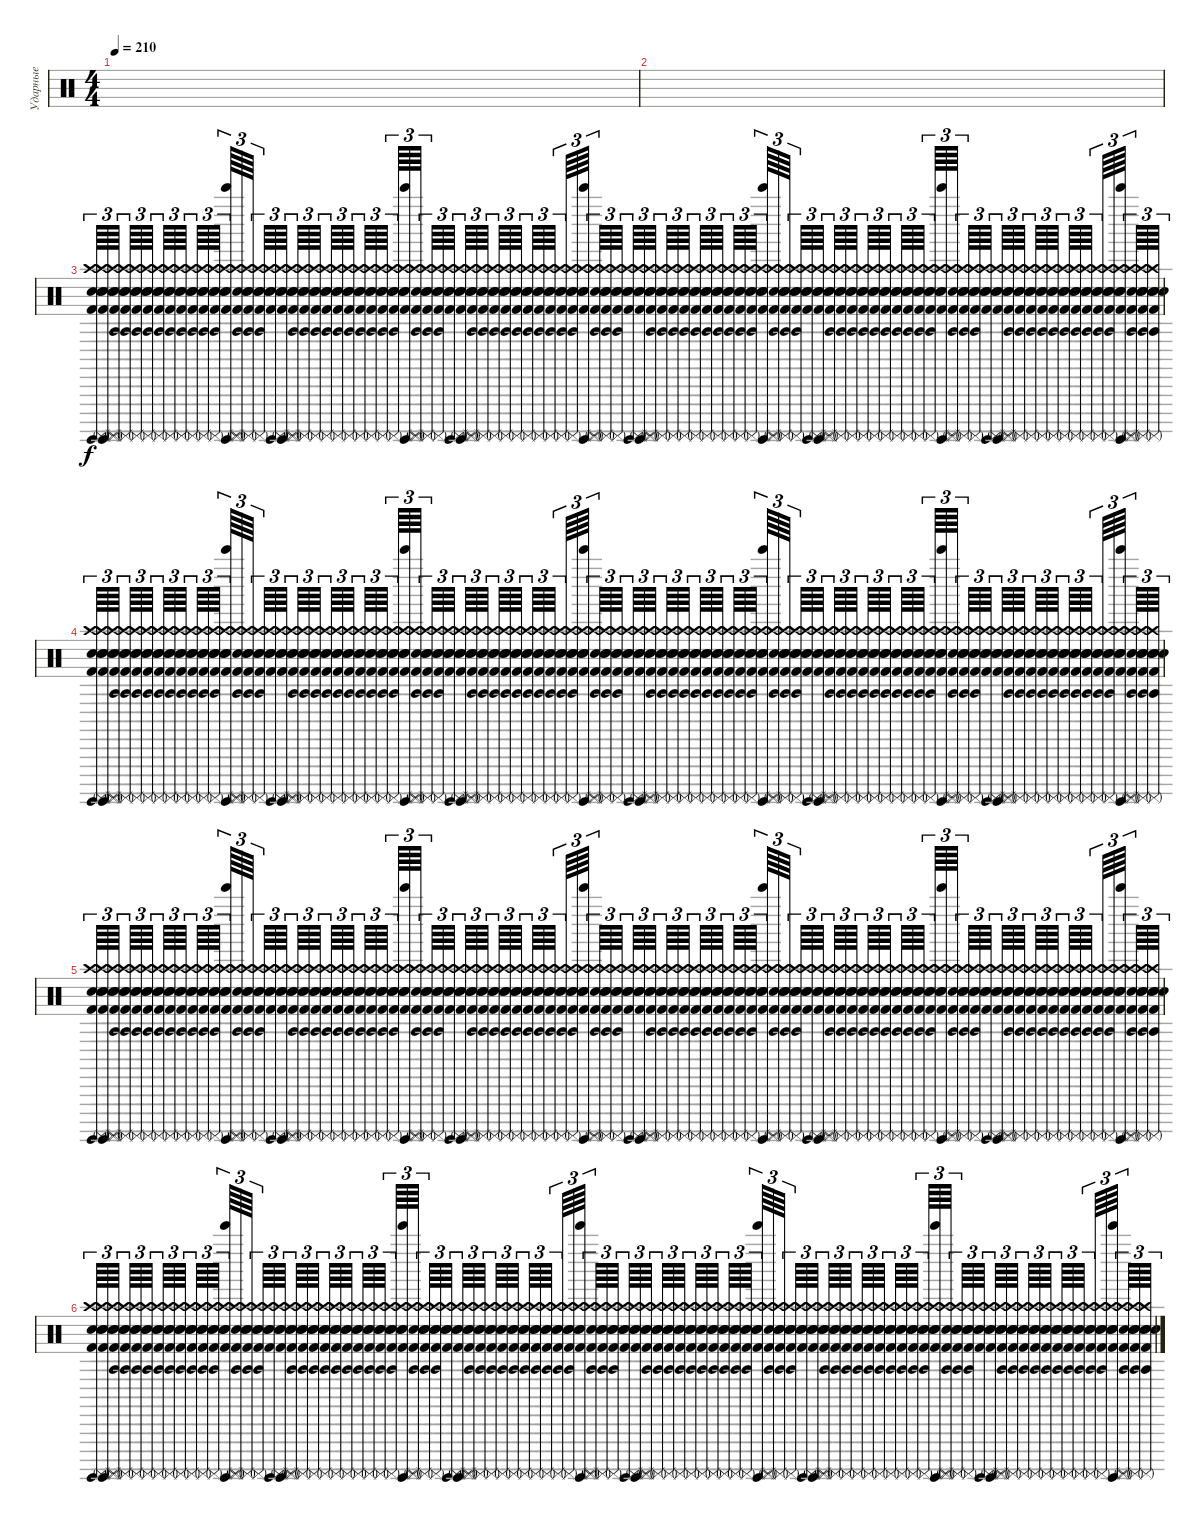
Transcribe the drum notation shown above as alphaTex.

\track ("Ударные" "Ударные") {instrument percussion}
\staff {score}
\articulation defaults
\ts (4 4)
\tempo 210
\clef neutral
\ks c
|
|
("Surdo (mute)" "Surdo (hit)" "Crash high (hit)" "Electric Snare (hit)" "Kick (hit) 2" "Snare (hit) 2").64{tu (3 2)} ("Surdo (mute)" "Surdo (hit)" "Crash high (hit)" "Electric Snare (hit)" "Kick (hit) 2" "Snare (hit) 2").64{tu (3 2)} ("Surdo (mute)" "Agogo tow (hit)" "Crash high (hit)" "Electric Snare (hit)" "Kick (hit) 2" "Snare (hit) 2").64{tu (3 2) beam splitsecondary} ("Surdo (mute)" "Agogo tow (hit)" "Crash high (hit)" "Electric Snare (hit)" "Kick (hit) 2" "Snare (hit) 2").64{tu (3 2)} ("Surdo (mute)" "Agogo tow (hit)" "Crash high (hit)" "Electric Snare (hit)" "Kick (hit) 2" "Snare (hit) 2").64{tu (3 2)} ("Surdo (mute)" "Agogo tow (hit)" "Crash high (hit)" "Electric Snare (hit)" "Kick (hit) 2" "Snare (hit) 2").64{tu (3 2) beam splitsecondary} ("Surdo (mute)" "Agogo tow (hit)" "Crash high (hit)" "Electric Snare (hit)" "Kick (hit) 2" "Snare (hit) 2").64{tu (3 2)} ("Surdo (mute)" "Agogo tow (hit)" "Crash high (hit)" "Electric Snare (hit)" "Kick (hit) 2" "Snare (hit) 2").64{tu (3 2)} ("Surdo (mute)" "Agogo tow (hit)" "Crash high (hit)" "Electric Snare (hit)" "Kick (hit) 2" "Snare (hit) 2").64{tu (3 2) beam splitsecondary} ("Surdo (mute)" "Agogo tow (hit)" "Crash high (hit)" "Electric Snare (hit)" "Kick (hit) 2" "Snare (hit) 2").64{tu (3 2)} ("Surdo (mute)" "Agogo tow (hit)" "Crash high (hit)" "Electric Snare (hit)" "Kick (hit) 2" "Snare (hit) 2").64{tu (3 2)} ("Surdo (mute)" "Agogo tow (hit)" "Crash high (hit)" "Electric Snare (hit)" "Kick (hit) 2" "Snare (hit) 2").64{tu (3 2) beam splitsecondary} ("Surdo (mute)" "Surdo (hit)" "Crash high (hit)" "Electric Snare (hit)" "Kick (hit) 2" "Tinkle Bell (hit)").64{tu (3 2)} ("Surdo (mute)" "Agogo tow (hit)" "Crash high (hit)" "Electric Snare (hit)" "Kick (hit) 2" "Snare (hit) 2").64{tu (3 2)} ("Surdo (mute)" "Agogo tow (hit)" "Crash high (hit)" "Electric Snare (hit)" "Kick (hit) 2" "Snare (hit) 2").64{tu (3 2) beam splitsecondary} ("Surdo (mute)" "Agogo tow (hit)" "Crash high (hit)" "Electric Snare (hit)" "Kick (hit) 2" "Snare (hit) 2").64{tu (3 2)} ("Surdo (mute)" "Surdo (hit)" "Crash high (hit)" "Electric Snare (hit)" "Kick (hit) 2" "Snare (hit) 2").64{tu (3 2)} ("Surdo (mute)" "Surdo (hit)" "Crash high (hit)" "Electric Snare (hit)" "Kick (hit) 2" "Snare (hit) 2").64{tu (3 2) beam splitsecondary} ("Surdo (mute)" "Agogo tow (hit)" "Crash high (hit)" "Electric Snare (hit)" "Kick (hit) 2" "Snare (hit) 2").64{tu (3 2)} ("Surdo (mute)" "Agogo tow (hit)" "Crash high (hit)" "Electric Snare (hit)" "Kick (hit) 2" "Snare (hit) 2").64{tu (3 2)} ("Surdo (mute)" "Agogo tow (hit)" "Crash high (hit)" "Electric Snare (hit)" "Kick (hit) 2" "Snare (hit) 2").64{tu (3 2) beam splitsecondary} ("Surdo (mute)" "Agogo tow (hit)" "Crash high (hit)" "Electric Snare (hit)" "Kick (hit) 2" "Snare (hit) 2").64{tu (3 2)} ("Surdo (mute)" "Agogo tow (hit)" "Crash high (hit)" "Electric Snare (hit)" "Kick (hit) 2" "Snare (hit) 2").64{tu (3 2)} ("Surdo (mute)" "Agogo tow (hit)" "Crash high (hit)" "Electric Snare (hit)" "Kick (hit) 2" "Snare (hit) 2").64{tu (3 2)} ("Surdo (mute)" "Agogo tow (hit)" "Crash high (hit)" "Electric Snare (hit)" "Kick (hit) 2" "Snare (hit) 2").64{tu (3 2)} ("Surdo (mute)" "Agogo tow (hit)" "Crash high (hit)" "Electric Snare (hit)" "Kick (hit) 2" "Snare (hit) 2").64{tu (3 2)} ("Surdo (mute)" "Agogo tow (hit)" "Crash high (hit)" "Electric Snare (hit)" "Kick (hit) 2" "Snare (hit) 2").64{tu (3 2) beam splitsecondary} ("Surdo (mute)" "Agogo tow (hit)" "Crash high (hit)" "Electric Snare (hit)" "Kick (hit) 2" "Snare (hit) 2").64{tu (3 2)} ("Surdo (mute)" "Surdo (hit)" "Crash high (hit)" "Electric Snare (hit)" "Kick (hit) 2" "Tinkle Bell (hit)").64{tu (3 2)} ("Surdo (mute)" "Agogo tow (hit)" "Crash high (hit)" "Electric Snare (hit)" "Kick (hit) 2" "Snare (hit) 2").64{tu (3 2) beam splitsecondary} ("Surdo (mute)" "Agogo tow (hit)" "Crash high (hit)" "Electric Snare (hit)" "Kick (hit) 2" "Snare (hit) 2").64{tu (3 2)} ("Surdo (mute)" "Agogo tow (hit)" "Crash high (hit)" "Electric Snare (hit)" "Kick (hit) 2" "Snare (hit) 2").64{tu (3 2)} ("Surdo (mute)" "Surdo (hit)" "Crash high (hit)" "Electric Snare (hit)" "Kick (hit) 2" "Snare (hit) 2").64{tu (3 2) beam splitsecondary} ("Surdo (mute)" "Surdo (hit)" "Crash high (hit)" "Electric Snare (hit)" "Kick (hit) 2" "Snare (hit) 2").64{tu (3 2)} ("Surdo (mute)" "Agogo tow (hit)" "Crash high (hit)" "Electric Snare (hit)" "Kick (hit) 2" "Snare (hit) 2").64{tu (3 2)} ("Surdo (mute)" "Agogo tow (hit)" "Crash high (hit)" "Electric Snare (hit)" "Kick (hit) 2" "Snare (hit) 2").64{tu (3 2) beam splitsecondary} ("Surdo (mute)" "Agogo tow (hit)" "Crash high (hit)" "Electric Snare (hit)" "Kick (hit) 2" "Snare (hit) 2").64{tu (3 2)} ("Surdo (mute)" "Agogo tow (hit)" "Crash high (hit)" "Electric Snare (hit)" "Kick (hit) 2" "Snare (hit) 2").64{tu (3 2)} ("Surdo (mute)" "Agogo tow (hit)" "Crash high (hit)" "Electric Snare (hit)" "Kick (hit) 2" "Snare (hit) 2").64{tu (3 2) beam splitsecondary} ("Surdo (mute)" "Agogo tow (hit)" "Crash high (hit)" "Electric Snare (hit)" "Kick (hit) 2" "Snare (hit) 2").64{tu (3 2)} ("Surdo (mute)" "Agogo tow (hit)" "Crash high (hit)" "Electric Snare (hit)" "Kick (hit) 2" "Snare (hit) 2").64{tu (3 2)} ("Surdo (mute)" "Agogo tow (hit)" "Crash high (hit)" "Electric Snare (hit)" "Kick (hit) 2" "Snare (hit) 2").64{tu (3 2) beam splitsecondary} ("Surdo (mute)" "Agogo tow (hit)" "Crash high (hit)" "Electric Snare (hit)" "Kick (hit) 2" "Snare (hit) 2").64{tu (3 2)} ("Surdo (mute)" "Agogo tow (hit)" "Crash high (hit)" "Electric Snare (hit)" "Kick (hit) 2" "Snare (hit) 2").64{tu (3 2)} ("Surdo (mute)" "Surdo (hit)" "Crash high (hit)" "Electric Snare (hit)" "Kick (hit) 2" "Tinkle Bell (hit)").64{tu (3 2) beam splitsecondary} ("Surdo (mute)" "Agogo tow (hit)" "Crash high (hit)" "Electric Snare (hit)" "Kick (hit) 2" "Snare (hit) 2").64{tu (3 2)} ("Surdo (mute)" "Agogo tow (hit)" "Crash high (hit)" "Electric Snare (hit)" "Kick (hit) 2" "Snare (hit) 2").64{tu (3 2)} ("Surdo (mute)" "Agogo tow (hit)" "Crash high (hit)" "Electric Snare (hit)" "Kick (hit) 2" "Snare (hit) 2").64{tu (3 2)} ("Surdo (mute)" "Surdo (hit)" "Crash high (hit)" "Electric Snare (hit)" "Kick (hit) 2" "Snare (hit) 2").64{tu (3 2)} ("Surdo (mute)" "Surdo (hit)" "Crash high (hit)" "Electric Snare (hit)" "Kick (hit) 2" "Snare (hit) 2").64{tu (3 2)} ("Surdo (mute)" "Agogo tow (hit)" "Crash high (hit)" "Electric Snare (hit)" "Kick (hit) 2" "Snare (hit) 2").64{tu (3 2) beam splitsecondary} ("Surdo (mute)" "Agogo tow (hit)" "Crash high (hit)" "Electric Snare (hit)" "Kick (hit) 2" "Snare (hit) 2").64{tu (3 2)} ("Surdo (mute)" "Agogo tow (hit)" "Crash high (hit)" "Electric Snare (hit)" "Kick (hit) 2" "Snare (hit) 2").64{tu (3 2)} ("Surdo (mute)" "Agogo tow (hit)" "Crash high (hit)" "Electric Snare (hit)" "Kick (hit) 2" "Snare (hit) 2").64{tu (3 2) beam splitsecondary} ("Surdo (mute)" "Agogo tow (hit)" "Crash high (hit)" "Electric Snare (hit)" "Kick (hit) 2" "Snare (hit) 2").64{tu (3 2)} ("Surdo (mute)" "Agogo tow (hit)" "Crash high (hit)" "Electric Snare (hit)" "Kick (hit) 2" "Snare (hit) 2").64{tu (3 2)} ("Surdo (mute)" "Agogo tow (hit)" "Crash high (hit)" "Electric Snare (hit)" "Kick (hit) 2" "Snare (hit) 2").64{tu (3 2) beam splitsecondary} ("Surdo (mute)" "Agogo tow (hit)" "Crash high (hit)" "Electric Snare (hit)" "Kick (hit) 2" "Snare (hit) 2").64{tu (3 2)} ("Surdo (mute)" "Agogo tow (hit)" "Crash high (hit)" "Electric Snare (hit)" "Kick (hit) 2" "Snare (hit) 2").64{tu (3 2)} ("Surdo (mute)" "Agogo tow (hit)" "Crash high (hit)" "Electric Snare (hit)" "Kick (hit) 2" "Snare (hit) 2").64{tu (3 2) beam splitsecondary} ("Surdo (mute)" "Surdo (hit)" "Crash high (hit)" "Electric Snare (hit)" "Kick (hit) 2" "Tinkle Bell (hit)").64{tu (3 2)} ("Surdo (mute)" "Agogo tow (hit)" "Crash high (hit)" "Electric Snare (hit)" "Kick (hit) 2" "Snare (hit) 2").64{tu (3 2)} ("Surdo (mute)" "Agogo tow (hit)" "Crash high (hit)" "Electric Snare (hit)" "Kick (hit) 2" "Snare (hit) 2").64{tu (3 2) beam splitsecondary} ("Surdo (mute)" "Agogo tow (hit)" "Crash high (hit)" "Electric Snare (hit)" "Kick (hit) 2" "Snare (hit) 2").64{tu (3 2)} ("Surdo (mute)" "Surdo (hit)" "Crash high (hit)" "Electric Snare (hit)" "Kick (hit) 2" "Snare (hit) 2").64{tu (3 2)} ("Surdo (mute)" "Surdo (hit)" "Crash high (hit)" "Electric Snare (hit)" "Kick (hit) 2" "Snare (hit) 2").64{tu (3 2) beam splitsecondary} ("Surdo (mute)" "Agogo tow (hit)" "Crash high (hit)" "Electric Snare (hit)" "Kick (hit) 2" "Snare (hit) 2").64{tu (3 2)} ("Surdo (mute)" "Agogo tow (hit)" "Crash high (hit)" "Electric Snare (hit)" "Kick (hit) 2" "Snare (hit) 2").64{tu (3 2)} ("Surdo (mute)" "Agogo tow (hit)" "Crash high (hit)" "Electric Snare (hit)" "Kick (hit) 2" "Snare (hit) 2").64{tu (3 2) beam splitsecondary} ("Surdo (mute)" "Agogo tow (hit)" "Crash high (hit)" "Electric Snare (hit)" "Kick (hit) 2" "Snare (hit) 2").64{tu (3 2)} ("Surdo (mute)" "Agogo tow (hit)" "Crash high (hit)" "Electric Snare (hit)" "Kick (hit) 2" "Snare (hit) 2").64{tu (3 2)} ("Surdo (mute)" "Agogo tow (hit)" "Crash high (hit)" "Electric Snare (hit)" "Kick (hit) 2" "Snare (hit) 2").64{tu (3 2)} ("Surdo (mute)" "Agogo tow (hit)" "Crash high (hit)" "Electric Snare (hit)" "Kick (hit) 2" "Snare (hit) 2").64{tu (3 2)} ("Surdo (mute)" "Agogo tow (hit)" "Crash high (hit)" "Electric Snare (hit)" "Kick (hit) 2" "Snare (hit) 2").64{tu (3 2)} ("Surdo (mute)" "Agogo tow (hit)" "Crash high (hit)" "Electric Snare (hit)" "Kick (hit) 2" "Snare (hit) 2").64{tu (3 2) beam splitsecondary} ("Surdo (mute)" "Agogo tow (hit)" "Crash high (hit)" "Electric Snare (hit)" "Kick (hit) 2" "Snare (hit) 2").64{tu (3 2)} ("Surdo (mute)" "Surdo (hit)" "Crash high (hit)" "Electric Snare (hit)" "Kick (hit) 2" "Tinkle Bell (hit)").64{tu (3 2)} ("Surdo (mute)" "Agogo tow (hit)" "Crash high (hit)" "Electric Snare (hit)" "Kick (hit) 2" "Snare (hit) 2").64{tu (3 2) beam splitsecondary} ("Surdo (mute)" "Agogo tow (hit)" "Crash high (hit)" "Electric Snare (hit)" "Kick (hit) 2" "Snare (hit) 2").64{tu (3 2)} ("Surdo (mute)" "Agogo tow (hit)" "Crash high (hit)" "Electric Snare (hit)" "Kick (hit) 2" "Snare (hit) 2").64{tu (3 2)} ("Surdo (mute)" "Surdo (hit)" "Crash high (hit)" "Electric Snare (hit)" "Kick (hit) 2" "Snare (hit) 2").64{tu (3 2) beam splitsecondary} ("Surdo (mute)" "Surdo (hit)" "Crash high (hit)" "Electric Snare (hit)" "Kick (hit) 2" "Snare (hit) 2").64{tu (3 2)} ("Surdo (mute)" "Agogo tow (hit)" "Crash high (hit)" "Electric Snare (hit)" "Kick (hit) 2" "Snare (hit) 2").64{tu (3 2)} ("Surdo (mute)" "Agogo tow (hit)" "Crash high (hit)" "Electric Snare (hit)" "Kick (hit) 2" "Snare (hit) 2").64{tu (3 2) beam splitsecondary} ("Surdo (mute)" "Agogo tow (hit)" "Crash high (hit)" "Electric Snare (hit)" "Kick (hit) 2" "Snare (hit) 2").64{tu (3 2)} ("Surdo (mute)" "Agogo tow (hit)" "Crash high (hit)" "Electric Snare (hit)" "Kick (hit) 2" "Snare (hit) 2").64{tu (3 2)} ("Surdo (mute)" "Agogo tow (hit)" "Crash high (hit)" "Electric Snare (hit)" "Kick (hit) 2" "Snare (hit) 2").64{tu (3 2) beam splitsecondary} ("Surdo (mute)" "Agogo tow (hit)" "Crash high (hit)" "Electric Snare (hit)" "Kick (hit) 2" "Snare (hit) 2").64{tu (3 2)} ("Surdo (mute)" "Agogo tow (hit)" "Crash high (hit)" "Electric Snare (hit)" "Kick (hit) 2" "Snare (hit) 2").64{tu (3 2)} ("Surdo (mute)" "Agogo tow (hit)" "Crash high (hit)" "Electric Snare (hit)" "Kick (hit) 2" "Snare (hit) 2").64{tu (3 2) beam splitsecondary} ("Surdo (mute)" "Agogo tow (hit)" "Crash high (hit)" "Electric Snare (hit)" "Kick (hit) 2" "Snare (hit) 2").64{tu (3 2)} ("Surdo (mute)" "Agogo tow (hit)" "Crash high (hit)" "Electric Snare (hit)" "Kick (hit) 2" "Snare (hit) 2").64{tu (3 2)} ("Surdo (mute)" "Surdo (hit)" "Crash high (hit)" "Electric Snare (hit)" "Kick (hit) 2" "Tinkle Bell (hit)").64{tu (3 2) beam splitsecondary} ("Surdo (mute)" "Agogo tow (hit)" "Crash high (hit)" "Electric Snare (hit)" "Kick (hit) 2" "Snare (hit) 2").64{tu (3 2)} ("Surdo (mute)" "Agogo tow (hit)" "Crash high (hit)" "Electric Snare (hit)" "Kick (hit) 2" "Snare (hit) 2").64{tu (3 2)} ("Surdo (mute)" "Agogo tow (hit)" "Crash high (hit)" "Electric Snare (hit)" "Kick (hit) 2" "Snare (hit) 2").64{tu (3 2)} |
("Surdo (mute)" "Surdo (hit)" "Crash high (hit)" "Electric Snare (hit)" "Kick (hit) 2" "Snare (hit) 2").64{tu (3 2)} ("Surdo (mute)" "Surdo (hit)" "Crash high (hit)" "Electric Snare (hit)" "Kick (hit) 2" "Snare (hit) 2").64{tu (3 2)} ("Surdo (mute)" "Agogo tow (hit)" "Crash high (hit)" "Electric Snare (hit)" "Kick (hit) 2" "Snare (hit) 2").64{tu (3 2) beam splitsecondary} ("Surdo (mute)" "Agogo tow (hit)" "Crash high (hit)" "Electric Snare (hit)" "Kick (hit) 2" "Snare (hit) 2").64{tu (3 2)} ("Surdo (mute)" "Agogo tow (hit)" "Crash high (hit)" "Electric Snare (hit)" "Kick (hit) 2" "Snare (hit) 2").64{tu (3 2)} ("Surdo (mute)" "Agogo tow (hit)" "Crash high (hit)" "Electric Snare (hit)" "Kick (hit) 2" "Snare (hit) 2").64{tu (3 2) beam splitsecondary} ("Surdo (mute)" "Agogo tow (hit)" "Crash high (hit)" "Electric Snare (hit)" "Kick (hit) 2" "Snare (hit) 2").64{tu (3 2)} ("Surdo (mute)" "Agogo tow (hit)" "Crash high (hit)" "Electric Snare (hit)" "Kick (hit) 2" "Snare (hit) 2").64{tu (3 2)} ("Surdo (mute)" "Agogo tow (hit)" "Crash high (hit)" "Electric Snare (hit)" "Kick (hit) 2" "Snare (hit) 2").64{tu (3 2) beam splitsecondary} ("Surdo (mute)" "Agogo tow (hit)" "Crash high (hit)" "Electric Snare (hit)" "Kick (hit) 2" "Snare (hit) 2").64{tu (3 2)} ("Surdo (mute)" "Agogo tow (hit)" "Crash high (hit)" "Electric Snare (hit)" "Kick (hit) 2" "Snare (hit) 2").64{tu (3 2)} ("Surdo (mute)" "Agogo tow (hit)" "Crash high (hit)" "Electric Snare (hit)" "Kick (hit) 2" "Snare (hit) 2").64{tu (3 2) beam splitsecondary} ("Surdo (mute)" "Surdo (hit)" "Crash high (hit)" "Electric Snare (hit)" "Kick (hit) 2" "Tinkle Bell (hit)").64{tu (3 2)} ("Surdo (mute)" "Agogo tow (hit)" "Crash high (hit)" "Electric Snare (hit)" "Kick (hit) 2" "Snare (hit) 2").64{tu (3 2)} ("Surdo (mute)" "Agogo tow (hit)" "Crash high (hit)" "Electric Snare (hit)" "Kick (hit) 2" "Snare (hit) 2").64{tu (3 2) beam splitsecondary} ("Surdo (mute)" "Agogo tow (hit)" "Crash high (hit)" "Electric Snare (hit)" "Kick (hit) 2" "Snare (hit) 2").64{tu (3 2)} ("Surdo (mute)" "Surdo (hit)" "Crash high (hit)" "Electric Snare (hit)" "Kick (hit) 2" "Snare (hit) 2").64{tu (3 2)} ("Surdo (mute)" "Surdo (hit)" "Crash high (hit)" "Electric Snare (hit)" "Kick (hit) 2" "Snare (hit) 2").64{tu (3 2) beam splitsecondary} ("Surdo (mute)" "Agogo tow (hit)" "Crash high (hit)" "Electric Snare (hit)" "Kick (hit) 2" "Snare (hit) 2").64{tu (3 2)} ("Surdo (mute)" "Agogo tow (hit)" "Crash high (hit)" "Electric Snare (hit)" "Kick (hit) 2" "Snare (hit) 2").64{tu (3 2)} ("Surdo (mute)" "Agogo tow (hit)" "Crash high (hit)" "Electric Snare (hit)" "Kick (hit) 2" "Snare (hit) 2").64{tu (3 2) beam splitsecondary} ("Surdo (mute)" "Agogo tow (hit)" "Crash high (hit)" "Electric Snare (hit)" "Kick (hit) 2" "Snare (hit) 2").64{tu (3 2)} ("Surdo (mute)" "Agogo tow (hit)" "Crash high (hit)" "Electric Snare (hit)" "Kick (hit) 2" "Snare (hit) 2").64{tu (3 2)} ("Surdo (mute)" "Agogo tow (hit)" "Crash high (hit)" "Electric Snare (hit)" "Kick (hit) 2" "Snare (hit) 2").64{tu (3 2)} ("Surdo (mute)" "Agogo tow (hit)" "Crash high (hit)" "Electric Snare (hit)" "Kick (hit) 2" "Snare (hit) 2").64{tu (3 2)} ("Surdo (mute)" "Agogo tow (hit)" "Crash high (hit)" "Electric Snare (hit)" "Kick (hit) 2" "Snare (hit) 2").64{tu (3 2)} ("Surdo (mute)" "Agogo tow (hit)" "Crash high (hit)" "Electric Snare (hit)" "Kick (hit) 2" "Snare (hit) 2").64{tu (3 2) beam splitsecondary} ("Surdo (mute)" "Agogo tow (hit)" "Crash high (hit)" "Electric Snare (hit)" "Kick (hit) 2" "Snare (hit) 2").64{tu (3 2)} ("Surdo (mute)" "Surdo (hit)" "Crash high (hit)" "Electric Snare (hit)" "Kick (hit) 2" "Tinkle Bell (hit)").64{tu (3 2)} ("Surdo (mute)" "Agogo tow (hit)" "Crash high (hit)" "Electric Snare (hit)" "Kick (hit) 2" "Snare (hit) 2").64{tu (3 2) beam splitsecondary} ("Surdo (mute)" "Agogo tow (hit)" "Crash high (hit)" "Electric Snare (hit)" "Kick (hit) 2" "Snare (hit) 2").64{tu (3 2)} ("Surdo (mute)" "Agogo tow (hit)" "Crash high (hit)" "Electric Snare (hit)" "Kick (hit) 2" "Snare (hit) 2").64{tu (3 2)} ("Surdo (mute)" "Surdo (hit)" "Crash high (hit)" "Electric Snare (hit)" "Kick (hit) 2" "Snare (hit) 2").64{tu (3 2) beam splitsecondary} ("Surdo (mute)" "Surdo (hit)" "Crash high (hit)" "Electric Snare (hit)" "Kick (hit) 2" "Snare (hit) 2").64{tu (3 2)} ("Surdo (mute)" "Agogo tow (hit)" "Crash high (hit)" "Electric Snare (hit)" "Kick (hit) 2" "Snare (hit) 2").64{tu (3 2)} ("Surdo (mute)" "Agogo tow (hit)" "Crash high (hit)" "Electric Snare (hit)" "Kick (hit) 2" "Snare (hit) 2").64{tu (3 2) beam splitsecondary} ("Surdo (mute)" "Agogo tow (hit)" "Crash high (hit)" "Electric Snare (hit)" "Kick (hit) 2" "Snare (hit) 2").64{tu (3 2)} ("Surdo (mute)" "Agogo tow (hit)" "Crash high (hit)" "Electric Snare (hit)" "Kick (hit) 2" "Snare (hit) 2").64{tu (3 2)} ("Surdo (mute)" "Agogo tow (hit)" "Crash high (hit)" "Electric Snare (hit)" "Kick (hit) 2" "Snare (hit) 2").64{tu (3 2) beam splitsecondary} ("Surdo (mute)" "Agogo tow (hit)" "Crash high (hit)" "Electric Snare (hit)" "Kick (hit) 2" "Snare (hit) 2").64{tu (3 2)} ("Surdo (mute)" "Agogo tow (hit)" "Crash high (hit)" "Electric Snare (hit)" "Kick (hit) 2" "Snare (hit) 2").64{tu (3 2)} ("Surdo (mute)" "Agogo tow (hit)" "Crash high (hit)" "Electric Snare (hit)" "Kick (hit) 2" "Snare (hit) 2").64{tu (3 2) beam splitsecondary} ("Surdo (mute)" "Agogo tow (hit)" "Crash high (hit)" "Electric Snare (hit)" "Kick (hit) 2" "Snare (hit) 2").64{tu (3 2)} ("Surdo (mute)" "Agogo tow (hit)" "Crash high (hit)" "Electric Snare (hit)" "Kick (hit) 2" "Snare (hit) 2").64{tu (3 2)} ("Surdo (mute)" "Surdo (hit)" "Crash high (hit)" "Electric Snare (hit)" "Kick (hit) 2" "Tinkle Bell (hit)").64{tu (3 2) beam splitsecondary} ("Surdo (mute)" "Agogo tow (hit)" "Crash high (hit)" "Electric Snare (hit)" "Kick (hit) 2" "Snare (hit) 2").64{tu (3 2)} ("Surdo (mute)" "Agogo tow (hit)" "Crash high (hit)" "Electric Snare (hit)" "Kick (hit) 2" "Snare (hit) 2").64{tu (3 2)} ("Surdo (mute)" "Agogo tow (hit)" "Crash high (hit)" "Electric Snare (hit)" "Kick (hit) 2" "Snare (hit) 2").64{tu (3 2)} ("Surdo (mute)" "Surdo (hit)" "Crash high (hit)" "Electric Snare (hit)" "Kick (hit) 2" "Snare (hit) 2").64{tu (3 2)} ("Surdo (mute)" "Surdo (hit)" "Crash high (hit)" "Electric Snare (hit)" "Kick (hit) 2" "Snare (hit) 2").64{tu (3 2)} ("Surdo (mute)" "Agogo tow (hit)" "Crash high (hit)" "Electric Snare (hit)" "Kick (hit) 2" "Snare (hit) 2").64{tu (3 2) beam splitsecondary} ("Surdo (mute)" "Agogo tow (hit)" "Crash high (hit)" "Electric Snare (hit)" "Kick (hit) 2" "Snare (hit) 2").64{tu (3 2)} ("Surdo (mute)" "Agogo tow (hit)" "Crash high (hit)" "Electric Snare (hit)" "Kick (hit) 2" "Snare (hit) 2").64{tu (3 2)} ("Surdo (mute)" "Agogo tow (hit)" "Crash high (hit)" "Electric Snare (hit)" "Kick (hit) 2" "Snare (hit) 2").64{tu (3 2) beam splitsecondary} ("Surdo (mute)" "Agogo tow (hit)" "Crash high (hit)" "Electric Snare (hit)" "Kick (hit) 2" "Snare (hit) 2").64{tu (3 2)} ("Surdo (mute)" "Agogo tow (hit)" "Crash high (hit)" "Electric Snare (hit)" "Kick (hit) 2" "Snare (hit) 2").64{tu (3 2)} ("Surdo (mute)" "Agogo tow (hit)" "Crash high (hit)" "Electric Snare (hit)" "Kick (hit) 2" "Snare (hit) 2").64{tu (3 2) beam splitsecondary} ("Surdo (mute)" "Agogo tow (hit)" "Crash high (hit)" "Electric Snare (hit)" "Kick (hit) 2" "Snare (hit) 2").64{tu (3 2)} ("Surdo (mute)" "Agogo tow (hit)" "Crash high (hit)" "Electric Snare (hit)" "Kick (hit) 2" "Snare (hit) 2").64{tu (3 2)} ("Surdo (mute)" "Agogo tow (hit)" "Crash high (hit)" "Electric Snare (hit)" "Kick (hit) 2" "Snare (hit) 2").64{tu (3 2) beam splitsecondary} ("Surdo (mute)" "Surdo (hit)" "Crash high (hit)" "Electric Snare (hit)" "Kick (hit) 2" "Tinkle Bell (hit)").64{tu (3 2)} ("Surdo (mute)" "Agogo tow (hit)" "Crash high (hit)" "Electric Snare (hit)" "Kick (hit) 2" "Snare (hit) 2").64{tu (3 2)} ("Surdo (mute)" "Agogo tow (hit)" "Crash high (hit)" "Electric Snare (hit)" "Kick (hit) 2" "Snare (hit) 2").64{tu (3 2) beam splitsecondary} ("Surdo (mute)" "Agogo tow (hit)" "Crash high (hit)" "Electric Snare (hit)" "Kick (hit) 2" "Snare (hit) 2").64{tu (3 2)} ("Surdo (mute)" "Surdo (hit)" "Crash high (hit)" "Electric Snare (hit)" "Kick (hit) 2" "Snare (hit) 2").64{tu (3 2)} ("Surdo (mute)" "Surdo (hit)" "Crash high (hit)" "Electric Snare (hit)" "Kick (hit) 2" "Snare (hit) 2").64{tu (3 2) beam splitsecondary} ("Surdo (mute)" "Agogo tow (hit)" "Crash high (hit)" "Electric Snare (hit)" "Kick (hit) 2" "Snare (hit) 2").64{tu (3 2)} ("Surdo (mute)" "Agogo tow (hit)" "Crash high (hit)" "Electric Snare (hit)" "Kick (hit) 2" "Snare (hit) 2").64{tu (3 2)} ("Surdo (mute)" "Agogo tow (hit)" "Crash high (hit)" "Electric Snare (hit)" "Kick (hit) 2" "Snare (hit) 2").64{tu (3 2) beam splitsecondary} ("Surdo (mute)" "Agogo tow (hit)" "Crash high (hit)" "Electric Snare (hit)" "Kick (hit) 2" "Snare (hit) 2").64{tu (3 2)} ("Surdo (mute)" "Agogo tow (hit)" "Crash high (hit)" "Electric Snare (hit)" "Kick (hit) 2" "Snare (hit) 2").64{tu (3 2)} ("Surdo (mute)" "Agogo tow (hit)" "Crash high (hit)" "Electric Snare (hit)" "Kick (hit) 2" "Snare (hit) 2").64{tu (3 2)} ("Surdo (mute)" "Agogo tow (hit)" "Crash high (hit)" "Electric Snare (hit)" "Kick (hit) 2" "Snare (hit) 2").64{tu (3 2)} ("Surdo (mute)" "Agogo tow (hit)" "Crash high (hit)" "Electric Snare (hit)" "Kick (hit) 2" "Snare (hit) 2").64{tu (3 2)} ("Surdo (mute)" "Agogo tow (hit)" "Crash high (hit)" "Electric Snare (hit)" "Kick (hit) 2" "Snare (hit) 2").64{tu (3 2) beam splitsecondary} ("Surdo (mute)" "Agogo tow (hit)" "Crash high (hit)" "Electric Snare (hit)" "Kick (hit) 2" "Snare (hit) 2").64{tu (3 2)} ("Surdo (mute)" "Surdo (hit)" "Crash high (hit)" "Electric Snare (hit)" "Kick (hit) 2" "Tinkle Bell (hit)").64{tu (3 2)} ("Surdo (mute)" "Agogo tow (hit)" "Crash high (hit)" "Electric Snare (hit)" "Kick (hit) 2" "Snare (hit) 2").64{tu (3 2) beam splitsecondary} ("Surdo (mute)" "Agogo tow (hit)" "Crash high (hit)" "Electric Snare (hit)" "Kick (hit) 2" "Snare (hit) 2").64{tu (3 2)} ("Surdo (mute)" "Agogo tow (hit)" "Crash high (hit)" "Electric Snare (hit)" "Kick (hit) 2" "Snare (hit) 2").64{tu (3 2)} ("Surdo (mute)" "Surdo (hit)" "Crash high (hit)" "Electric Snare (hit)" "Kick (hit) 2" "Snare (hit) 2").64{tu (3 2) beam splitsecondary} ("Surdo (mute)" "Surdo (hit)" "Crash high (hit)" "Electric Snare (hit)" "Kick (hit) 2" "Snare (hit) 2").64{tu (3 2)} ("Surdo (mute)" "Agogo tow (hit)" "Crash high (hit)" "Electric Snare (hit)" "Kick (hit) 2" "Snare (hit) 2").64{tu (3 2)} ("Surdo (mute)" "Agogo tow (hit)" "Crash high (hit)" "Electric Snare (hit)" "Kick (hit) 2" "Snare (hit) 2").64{tu (3 2) beam splitsecondary} ("Surdo (mute)" "Agogo tow (hit)" "Crash high (hit)" "Electric Snare (hit)" "Kick (hit) 2" "Snare (hit) 2").64{tu (3 2)} ("Surdo (mute)" "Agogo tow (hit)" "Crash high (hit)" "Electric Snare (hit)" "Kick (hit) 2" "Snare (hit) 2").64{tu (3 2)} ("Surdo (mute)" "Agogo tow (hit)" "Crash high (hit)" "Electric Snare (hit)" "Kick (hit) 2" "Snare (hit) 2").64{tu (3 2) beam splitsecondary} ("Surdo (mute)" "Agogo tow (hit)" "Crash high (hit)" "Electric Snare (hit)" "Kick (hit) 2" "Snare (hit) 2").64{tu (3 2)} ("Surdo (mute)" "Agogo tow (hit)" "Crash high (hit)" "Electric Snare (hit)" "Kick (hit) 2" "Snare (hit) 2").64{tu (3 2)} ("Surdo (mute)" "Agogo tow (hit)" "Crash high (hit)" "Electric Snare (hit)" "Kick (hit) 2" "Snare (hit) 2").64{tu (3 2) beam splitsecondary} ("Surdo (mute)" "Agogo tow (hit)" "Crash high (hit)" "Electric Snare (hit)" "Kick (hit) 2" "Snare (hit) 2").64{tu (3 2)} ("Surdo (mute)" "Agogo tow (hit)" "Crash high (hit)" "Electric Snare (hit)" "Kick (hit) 2" "Snare (hit) 2").64{tu (3 2)} ("Surdo (mute)" "Surdo (hit)" "Crash high (hit)" "Electric Snare (hit)" "Kick (hit) 2" "Tinkle Bell (hit)").64{tu (3 2) beam splitsecondary} ("Surdo (mute)" "Agogo tow (hit)" "Crash high (hit)" "Electric Snare (hit)" "Kick (hit) 2" "Snare (hit) 2").64{tu (3 2)} ("Surdo (mute)" "Agogo tow (hit)" "Crash high (hit)" "Electric Snare (hit)" "Kick (hit) 2" "Snare (hit) 2").64{tu (3 2)} ("Surdo (mute)" "Agogo tow (hit)" "Crash high (hit)" "Electric Snare (hit)" "Kick (hit) 2" "Snare (hit) 2").64{tu (3 2)} |
("Surdo (mute)" "Surdo (hit)" "Crash high (hit)" "Electric Snare (hit)" "Kick (hit) 2" "Snare (hit) 2").64{tu (3 2)} ("Surdo (mute)" "Surdo (hit)" "Crash high (hit)" "Electric Snare (hit)" "Kick (hit) 2" "Snare (hit) 2").64{tu (3 2)} ("Surdo (mute)" "Agogo tow (hit)" "Crash high (hit)" "Electric Snare (hit)" "Kick (hit) 2" "Snare (hit) 2").64{tu (3 2) beam splitsecondary} ("Surdo (mute)" "Agogo tow (hit)" "Crash high (hit)" "Electric Snare (hit)" "Kick (hit) 2" "Snare (hit) 2").64{tu (3 2)} ("Surdo (mute)" "Agogo tow (hit)" "Crash high (hit)" "Electric Snare (hit)" "Kick (hit) 2" "Snare (hit) 2").64{tu (3 2)} ("Surdo (mute)" "Agogo tow (hit)" "Crash high (hit)" "Electric Snare (hit)" "Kick (hit) 2" "Snare (hit) 2").64{tu (3 2) beam splitsecondary} ("Surdo (mute)" "Agogo tow (hit)" "Crash high (hit)" "Electric Snare (hit)" "Kick (hit) 2" "Snare (hit) 2").64{tu (3 2)} ("Surdo (mute)" "Agogo tow (hit)" "Crash high (hit)" "Electric Snare (hit)" "Kick (hit) 2" "Snare (hit) 2").64{tu (3 2)} ("Surdo (mute)" "Agogo tow (hit)" "Crash high (hit)" "Electric Snare (hit)" "Kick (hit) 2" "Snare (hit) 2").64{tu (3 2) beam splitsecondary} ("Surdo (mute)" "Agogo tow (hit)" "Crash high (hit)" "Electric Snare (hit)" "Kick (hit) 2" "Snare (hit) 2").64{tu (3 2)} ("Surdo (mute)" "Agogo tow (hit)" "Crash high (hit)" "Electric Snare (hit)" "Kick (hit) 2" "Snare (hit) 2").64{tu (3 2)} ("Surdo (mute)" "Agogo tow (hit)" "Crash high (hit)" "Electric Snare (hit)" "Kick (hit) 2" "Snare (hit) 2").64{tu (3 2) beam splitsecondary} ("Surdo (mute)" "Surdo (hit)" "Crash high (hit)" "Electric Snare (hit)" "Kick (hit) 2" "Tinkle Bell (hit)").64{tu (3 2)} ("Surdo (mute)" "Agogo tow (hit)" "Crash high (hit)" "Electric Snare (hit)" "Kick (hit) 2" "Snare (hit) 2").64{tu (3 2)} ("Surdo (mute)" "Agogo tow (hit)" "Crash high (hit)" "Electric Snare (hit)" "Kick (hit) 2" "Snare (hit) 2").64{tu (3 2) beam splitsecondary} ("Surdo (mute)" "Agogo tow (hit)" "Crash high (hit)" "Electric Snare (hit)" "Kick (hit) 2" "Snare (hit) 2").64{tu (3 2)} ("Surdo (mute)" "Surdo (hit)" "Crash high (hit)" "Electric Snare (hit)" "Kick (hit) 2" "Snare (hit) 2").64{tu (3 2)} ("Surdo (mute)" "Surdo (hit)" "Crash high (hit)" "Electric Snare (hit)" "Kick (hit) 2" "Snare (hit) 2").64{tu (3 2) beam splitsecondary} ("Surdo (mute)" "Agogo tow (hit)" "Crash high (hit)" "Electric Snare (hit)" "Kick (hit) 2" "Snare (hit) 2").64{tu (3 2)} ("Surdo (mute)" "Agogo tow (hit)" "Crash high (hit)" "Electric Snare (hit)" "Kick (hit) 2" "Snare (hit) 2").64{tu (3 2)} ("Surdo (mute)" "Agogo tow (hit)" "Crash high (hit)" "Electric Snare (hit)" "Kick (hit) 2" "Snare (hit) 2").64{tu (3 2) beam splitsecondary} ("Surdo (mute)" "Agogo tow (hit)" "Crash high (hit)" "Electric Snare (hit)" "Kick (hit) 2" "Snare (hit) 2").64{tu (3 2)} ("Surdo (mute)" "Agogo tow (hit)" "Crash high (hit)" "Electric Snare (hit)" "Kick (hit) 2" "Snare (hit) 2").64{tu (3 2)} ("Surdo (mute)" "Agogo tow (hit)" "Crash high (hit)" "Electric Snare (hit)" "Kick (hit) 2" "Snare (hit) 2").64{tu (3 2)} ("Surdo (mute)" "Agogo tow (hit)" "Crash high (hit)" "Electric Snare (hit)" "Kick (hit) 2" "Snare (hit) 2").64{tu (3 2)} ("Surdo (mute)" "Agogo tow (hit)" "Crash high (hit)" "Electric Snare (hit)" "Kick (hit) 2" "Snare (hit) 2").64{tu (3 2)} ("Surdo (mute)" "Agogo tow (hit)" "Crash high (hit)" "Electric Snare (hit)" "Kick (hit) 2" "Snare (hit) 2").64{tu (3 2) beam splitsecondary} ("Surdo (mute)" "Agogo tow (hit)" "Crash high (hit)" "Electric Snare (hit)" "Kick (hit) 2" "Snare (hit) 2").64{tu (3 2)} ("Surdo (mute)" "Surdo (hit)" "Crash high (hit)" "Electric Snare (hit)" "Kick (hit) 2" "Tinkle Bell (hit)").64{tu (3 2)} ("Surdo (mute)" "Agogo tow (hit)" "Crash high (hit)" "Electric Snare (hit)" "Kick (hit) 2" "Snare (hit) 2").64{tu (3 2) beam splitsecondary} ("Surdo (mute)" "Agogo tow (hit)" "Crash high (hit)" "Electric Snare (hit)" "Kick (hit) 2" "Snare (hit) 2").64{tu (3 2)} ("Surdo (mute)" "Agogo tow (hit)" "Crash high (hit)" "Electric Snare (hit)" "Kick (hit) 2" "Snare (hit) 2").64{tu (3 2)} ("Surdo (mute)" "Surdo (hit)" "Crash high (hit)" "Electric Snare (hit)" "Kick (hit) 2" "Snare (hit) 2").64{tu (3 2) beam splitsecondary} ("Surdo (mute)" "Surdo (hit)" "Crash high (hit)" "Electric Snare (hit)" "Kick (hit) 2" "Snare (hit) 2").64{tu (3 2)} ("Surdo (mute)" "Agogo tow (hit)" "Crash high (hit)" "Electric Snare (hit)" "Kick (hit) 2" "Snare (hit) 2").64{tu (3 2)} ("Surdo (mute)" "Agogo tow (hit)" "Crash high (hit)" "Electric Snare (hit)" "Kick (hit) 2" "Snare (hit) 2").64{tu (3 2) beam splitsecondary} ("Surdo (mute)" "Agogo tow (hit)" "Crash high (hit)" "Electric Snare (hit)" "Kick (hit) 2" "Snare (hit) 2").64{tu (3 2)} ("Surdo (mute)" "Agogo tow (hit)" "Crash high (hit)" "Electric Snare (hit)" "Kick (hit) 2" "Snare (hit) 2").64{tu (3 2)} ("Surdo (mute)" "Agogo tow (hit)" "Crash high (hit)" "Electric Snare (hit)" "Kick (hit) 2" "Snare (hit) 2").64{tu (3 2) beam splitsecondary} ("Surdo (mute)" "Agogo tow (hit)" "Crash high (hit)" "Electric Snare (hit)" "Kick (hit) 2" "Snare (hit) 2").64{tu (3 2)} ("Surdo (mute)" "Agogo tow (hit)" "Crash high (hit)" "Electric Snare (hit)" "Kick (hit) 2" "Snare (hit) 2").64{tu (3 2)} ("Surdo (mute)" "Agogo tow (hit)" "Crash high (hit)" "Electric Snare (hit)" "Kick (hit) 2" "Snare (hit) 2").64{tu (3 2) beam splitsecondary} ("Surdo (mute)" "Agogo tow (hit)" "Crash high (hit)" "Electric Snare (hit)" "Kick (hit) 2" "Snare (hit) 2").64{tu (3 2)} ("Surdo (mute)" "Agogo tow (hit)" "Crash high (hit)" "Electric Snare (hit)" "Kick (hit) 2" "Snare (hit) 2").64{tu (3 2)} ("Surdo (mute)" "Surdo (hit)" "Crash high (hit)" "Electric Snare (hit)" "Kick (hit) 2" "Tinkle Bell (hit)").64{tu (3 2) beam splitsecondary} ("Surdo (mute)" "Agogo tow (hit)" "Crash high (hit)" "Electric Snare (hit)" "Kick (hit) 2" "Snare (hit) 2").64{tu (3 2)} ("Surdo (mute)" "Agogo tow (hit)" "Crash high (hit)" "Electric Snare (hit)" "Kick (hit) 2" "Snare (hit) 2").64{tu (3 2)} ("Surdo (mute)" "Agogo tow (hit)" "Crash high (hit)" "Electric Snare (hit)" "Kick (hit) 2" "Snare (hit) 2").64{tu (3 2)} ("Surdo (mute)" "Surdo (hit)" "Crash high (hit)" "Electric Snare (hit)" "Kick (hit) 2" "Snare (hit) 2").64{tu (3 2)} ("Surdo (mute)" "Surdo (hit)" "Crash high (hit)" "Electric Snare (hit)" "Kick (hit) 2" "Snare (hit) 2").64{tu (3 2)} ("Surdo (mute)" "Agogo tow (hit)" "Crash high (hit)" "Electric Snare (hit)" "Kick (hit) 2" "Snare (hit) 2").64{tu (3 2) beam splitsecondary} ("Surdo (mute)" "Agogo tow (hit)" "Crash high (hit)" "Electric Snare (hit)" "Kick (hit) 2" "Snare (hit) 2").64{tu (3 2)} ("Surdo (mute)" "Agogo tow (hit)" "Crash high (hit)" "Electric Snare (hit)" "Kick (hit) 2" "Snare (hit) 2").64{tu (3 2)} ("Surdo (mute)" "Agogo tow (hit)" "Crash high (hit)" "Electric Snare (hit)" "Kick (hit) 2" "Snare (hit) 2").64{tu (3 2) beam splitsecondary} ("Surdo (mute)" "Agogo tow (hit)" "Crash high (hit)" "Electric Snare (hit)" "Kick (hit) 2" "Snare (hit) 2").64{tu (3 2)} ("Surdo (mute)" "Agogo tow (hit)" "Crash high (hit)" "Electric Snare (hit)" "Kick (hit) 2" "Snare (hit) 2").64{tu (3 2)} ("Surdo (mute)" "Agogo tow (hit)" "Crash high (hit)" "Electric Snare (hit)" "Kick (hit) 2" "Snare (hit) 2").64{tu (3 2) beam splitsecondary} ("Surdo (mute)" "Agogo tow (hit)" "Crash high (hit)" "Electric Snare (hit)" "Kick (hit) 2" "Snare (hit) 2").64{tu (3 2)} ("Surdo (mute)" "Agogo tow (hit)" "Crash high (hit)" "Electric Snare (hit)" "Kick (hit) 2" "Snare (hit) 2").64{tu (3 2)} ("Surdo (mute)" "Agogo tow (hit)" "Crash high (hit)" "Electric Snare (hit)" "Kick (hit) 2" "Snare (hit) 2").64{tu (3 2) beam splitsecondary} ("Surdo (mute)" "Surdo (hit)" "Crash high (hit)" "Electric Snare (hit)" "Kick (hit) 2" "Tinkle Bell (hit)").64{tu (3 2)} ("Surdo (mute)" "Agogo tow (hit)" "Crash high (hit)" "Electric Snare (hit)" "Kick (hit) 2" "Snare (hit) 2").64{tu (3 2)} ("Surdo (mute)" "Agogo tow (hit)" "Crash high (hit)" "Electric Snare (hit)" "Kick (hit) 2" "Snare (hit) 2").64{tu (3 2) beam splitsecondary} ("Surdo (mute)" "Agogo tow (hit)" "Crash high (hit)" "Electric Snare (hit)" "Kick (hit) 2" "Snare (hit) 2").64{tu (3 2)} ("Surdo (mute)" "Surdo (hit)" "Crash high (hit)" "Electric Snare (hit)" "Kick (hit) 2" "Snare (hit) 2").64{tu (3 2)} ("Surdo (mute)" "Surdo (hit)" "Crash high (hit)" "Electric Snare (hit)" "Kick (hit) 2" "Snare (hit) 2").64{tu (3 2) beam splitsecondary} ("Surdo (mute)" "Agogo tow (hit)" "Crash high (hit)" "Electric Snare (hit)" "Kick (hit) 2" "Snare (hit) 2").64{tu (3 2)} ("Surdo (mute)" "Agogo tow (hit)" "Crash high (hit)" "Electric Snare (hit)" "Kick (hit) 2" "Snare (hit) 2").64{tu (3 2)} ("Surdo (mute)" "Agogo tow (hit)" "Crash high (hit)" "Electric Snare (hit)" "Kick (hit) 2" "Snare (hit) 2").64{tu (3 2) beam splitsecondary} ("Surdo (mute)" "Agogo tow (hit)" "Crash high (hit)" "Electric Snare (hit)" "Kick (hit) 2" "Snare (hit) 2").64{tu (3 2)} ("Surdo (mute)" "Agogo tow (hit)" "Crash high (hit)" "Electric Snare (hit)" "Kick (hit) 2" "Snare (hit) 2").64{tu (3 2)} ("Surdo (mute)" "Agogo tow (hit)" "Crash high (hit)" "Electric Snare (hit)" "Kick (hit) 2" "Snare (hit) 2").64{tu (3 2)} ("Surdo (mute)" "Agogo tow (hit)" "Crash high (hit)" "Electric Snare (hit)" "Kick (hit) 2" "Snare (hit) 2").64{tu (3 2)} ("Surdo (mute)" "Agogo tow (hit)" "Crash high (hit)" "Electric Snare (hit)" "Kick (hit) 2" "Snare (hit) 2").64{tu (3 2)} ("Surdo (mute)" "Agogo tow (hit)" "Crash high (hit)" "Electric Snare (hit)" "Kick (hit) 2" "Snare (hit) 2").64{tu (3 2) beam splitsecondary} ("Surdo (mute)" "Agogo tow (hit)" "Crash high (hit)" "Electric Snare (hit)" "Kick (hit) 2" "Snare (hit) 2").64{tu (3 2)} ("Surdo (mute)" "Surdo (hit)" "Crash high (hit)" "Electric Snare (hit)" "Kick (hit) 2" "Tinkle Bell (hit)").64{tu (3 2)} ("Surdo (mute)" "Agogo tow (hit)" "Crash high (hit)" "Electric Snare (hit)" "Kick (hit) 2" "Snare (hit) 2").64{tu (3 2) beam splitsecondary} ("Surdo (mute)" "Agogo tow (hit)" "Crash high (hit)" "Electric Snare (hit)" "Kick (hit) 2" "Snare (hit) 2").64{tu (3 2)} ("Surdo (mute)" "Agogo tow (hit)" "Crash high (hit)" "Electric Snare (hit)" "Kick (hit) 2" "Snare (hit) 2").64{tu (3 2)} ("Surdo (mute)" "Surdo (hit)" "Crash high (hit)" "Electric Snare (hit)" "Kick (hit) 2" "Snare (hit) 2").64{tu (3 2) beam splitsecondary} ("Surdo (mute)" "Surdo (hit)" "Crash high (hit)" "Electric Snare (hit)" "Kick (hit) 2" "Snare (hit) 2").64{tu (3 2)} ("Surdo (mute)" "Agogo tow (hit)" "Crash high (hit)" "Electric Snare (hit)" "Kick (hit) 2" "Snare (hit) 2").64{tu (3 2)} ("Surdo (mute)" "Agogo tow (hit)" "Crash high (hit)" "Electric Snare (hit)" "Kick (hit) 2" "Snare (hit) 2").64{tu (3 2) beam splitsecondary} ("Surdo (mute)" "Agogo tow (hit)" "Crash high (hit)" "Electric Snare (hit)" "Kick (hit) 2" "Snare (hit) 2").64{tu (3 2)} ("Surdo (mute)" "Agogo tow (hit)" "Crash high (hit)" "Electric Snare (hit)" "Kick (hit) 2" "Snare (hit) 2").64{tu (3 2)} ("Surdo (mute)" "Agogo tow (hit)" "Crash high (hit)" "Electric Snare (hit)" "Kick (hit) 2" "Snare (hit) 2").64{tu (3 2) beam splitsecondary} ("Surdo (mute)" "Agogo tow (hit)" "Crash high (hit)" "Electric Snare (hit)" "Kick (hit) 2" "Snare (hit) 2").64{tu (3 2)} ("Surdo (mute)" "Agogo tow (hit)" "Crash high (hit)" "Electric Snare (hit)" "Kick (hit) 2" "Snare (hit) 2").64{tu (3 2)} ("Surdo (mute)" "Agogo tow (hit)" "Crash high (hit)" "Electric Snare (hit)" "Kick (hit) 2" "Snare (hit) 2").64{tu (3 2) beam splitsecondary} ("Surdo (mute)" "Agogo tow (hit)" "Crash high (hit)" "Electric Snare (hit)" "Kick (hit) 2" "Snare (hit) 2").64{tu (3 2)} ("Surdo (mute)" "Agogo tow (hit)" "Crash high (hit)" "Electric Snare (hit)" "Kick (hit) 2" "Snare (hit) 2").64{tu (3 2)} ("Surdo (mute)" "Surdo (hit)" "Crash high (hit)" "Electric Snare (hit)" "Kick (hit) 2" "Tinkle Bell (hit)").64{tu (3 2) beam splitsecondary} ("Surdo (mute)" "Agogo tow (hit)" "Crash high (hit)" "Electric Snare (hit)" "Kick (hit) 2" "Snare (hit) 2").64{tu (3 2)} ("Surdo (mute)" "Agogo tow (hit)" "Crash high (hit)" "Electric Snare (hit)" "Kick (hit) 2" "Snare (hit) 2").64{tu (3 2)} ("Surdo (mute)" "Agogo tow (hit)" "Crash high (hit)" "Electric Snare (hit)" "Kick (hit) 2" "Snare (hit) 2").64{tu (3 2)} |
("Surdo (mute)" "Surdo (hit)" "Crash high (hit)" "Electric Snare (hit)" "Kick (hit) 2" "Snare (hit) 2").64{tu (3 2)} ("Surdo (mute)" "Surdo (hit)" "Crash high (hit)" "Electric Snare (hit)" "Kick (hit) 2" "Snare (hit) 2").64{tu (3 2)} ("Surdo (mute)" "Agogo tow (hit)" "Crash high (hit)" "Electric Snare (hit)" "Kick (hit) 2" "Snare (hit) 2").64{tu (3 2) beam splitsecondary} ("Surdo (mute)" "Agogo tow (hit)" "Crash high (hit)" "Electric Snare (hit)" "Kick (hit) 2" "Snare (hit) 2").64{tu (3 2)} ("Surdo (mute)" "Agogo tow (hit)" "Crash high (hit)" "Electric Snare (hit)" "Kick (hit) 2" "Snare (hit) 2").64{tu (3 2)} ("Surdo (mute)" "Agogo tow (hit)" "Crash high (hit)" "Electric Snare (hit)" "Kick (hit) 2" "Snare (hit) 2").64{tu (3 2) beam splitsecondary} ("Surdo (mute)" "Agogo tow (hit)" "Crash high (hit)" "Electric Snare (hit)" "Kick (hit) 2" "Snare (hit) 2").64{tu (3 2)} ("Surdo (mute)" "Agogo tow (hit)" "Crash high (hit)" "Electric Snare (hit)" "Kick (hit) 2" "Snare (hit) 2").64{tu (3 2)} ("Surdo (mute)" "Agogo tow (hit)" "Crash high (hit)" "Electric Snare (hit)" "Kick (hit) 2" "Snare (hit) 2").64{tu (3 2) beam splitsecondary} ("Surdo (mute)" "Agogo tow (hit)" "Crash high (hit)" "Electric Snare (hit)" "Kick (hit) 2" "Snare (hit) 2").64{tu (3 2)} ("Surdo (mute)" "Agogo tow (hit)" "Crash high (hit)" "Electric Snare (hit)" "Kick (hit) 2" "Snare (hit) 2").64{tu (3 2)} ("Surdo (mute)" "Agogo tow (hit)" "Crash high (hit)" "Electric Snare (hit)" "Kick (hit) 2" "Snare (hit) 2").64{tu (3 2) beam splitsecondary} ("Surdo (mute)" "Surdo (hit)" "Crash high (hit)" "Electric Snare (hit)" "Kick (hit) 2" "Tinkle Bell (hit)").64{tu (3 2)} ("Surdo (mute)" "Agogo tow (hit)" "Crash high (hit)" "Electric Snare (hit)" "Kick (hit) 2" "Snare (hit) 2").64{tu (3 2)} ("Surdo (mute)" "Agogo tow (hit)" "Crash high (hit)" "Electric Snare (hit)" "Kick (hit) 2" "Snare (hit) 2").64{tu (3 2) beam splitsecondary} ("Surdo (mute)" "Agogo tow (hit)" "Crash high (hit)" "Electric Snare (hit)" "Kick (hit) 2" "Snare (hit) 2").64{tu (3 2)} ("Surdo (mute)" "Surdo (hit)" "Crash high (hit)" "Electric Snare (hit)" "Kick (hit) 2" "Snare (hit) 2").64{tu (3 2)} ("Surdo (mute)" "Surdo (hit)" "Crash high (hit)" "Electric Snare (hit)" "Kick (hit) 2" "Snare (hit) 2").64{tu (3 2) beam splitsecondary} ("Surdo (mute)" "Agogo tow (hit)" "Crash high (hit)" "Electric Snare (hit)" "Kick (hit) 2" "Snare (hit) 2").64{tu (3 2)} ("Surdo (mute)" "Agogo tow (hit)" "Crash high (hit)" "Electric Snare (hit)" "Kick (hit) 2" "Snare (hit) 2").64{tu (3 2)} ("Surdo (mute)" "Agogo tow (hit)" "Crash high (hit)" "Electric Snare (hit)" "Kick (hit) 2" "Snare (hit) 2").64{tu (3 2) beam splitsecondary} ("Surdo (mute)" "Agogo tow (hit)" "Crash high (hit)" "Electric Snare (hit)" "Kick (hit) 2" "Snare (hit) 2").64{tu (3 2)} ("Surdo (mute)" "Agogo tow (hit)" "Crash high (hit)" "Electric Snare (hit)" "Kick (hit) 2" "Snare (hit) 2").64{tu (3 2)} ("Surdo (mute)" "Agogo tow (hit)" "Crash high (hit)" "Electric Snare (hit)" "Kick (hit) 2" "Snare (hit) 2").64{tu (3 2)} ("Surdo (mute)" "Agogo tow (hit)" "Crash high (hit)" "Electric Snare (hit)" "Kick (hit) 2" "Snare (hit) 2").64{tu (3 2)} ("Surdo (mute)" "Agogo tow (hit)" "Crash high (hit)" "Electric Snare (hit)" "Kick (hit) 2" "Snare (hit) 2").64{tu (3 2)} ("Surdo (mute)" "Agogo tow (hit)" "Crash high (hit)" "Electric Snare (hit)" "Kick (hit) 2" "Snare (hit) 2").64{tu (3 2) beam splitsecondary} ("Surdo (mute)" "Agogo tow (hit)" "Crash high (hit)" "Electric Snare (hit)" "Kick (hit) 2" "Snare (hit) 2").64{tu (3 2)} ("Surdo (mute)" "Surdo (hit)" "Crash high (hit)" "Electric Snare (hit)" "Kick (hit) 2" "Tinkle Bell (hit)").64{tu (3 2)} ("Surdo (mute)" "Agogo tow (hit)" "Crash high (hit)" "Electric Snare (hit)" "Kick (hit) 2" "Snare (hit) 2").64{tu (3 2) beam splitsecondary} ("Surdo (mute)" "Agogo tow (hit)" "Crash high (hit)" "Electric Snare (hit)" "Kick (hit) 2" "Snare (hit) 2").64{tu (3 2)} ("Surdo (mute)" "Agogo tow (hit)" "Crash high (hit)" "Electric Snare (hit)" "Kick (hit) 2" "Snare (hit) 2").64{tu (3 2)} ("Surdo (mute)" "Surdo (hit)" "Crash high (hit)" "Electric Snare (hit)" "Kick (hit) 2" "Snare (hit) 2").64{tu (3 2) beam splitsecondary} ("Surdo (mute)" "Surdo (hit)" "Crash high (hit)" "Electric Snare (hit)" "Kick (hit) 2" "Snare (hit) 2").64{tu (3 2)} ("Surdo (mute)" "Agogo tow (hit)" "Crash high (hit)" "Electric Snare (hit)" "Kick (hit) 2" "Snare (hit) 2").64{tu (3 2)} ("Surdo (mute)" "Agogo tow (hit)" "Crash high (hit)" "Electric Snare (hit)" "Kick (hit) 2" "Snare (hit) 2").64{tu (3 2) beam splitsecondary} ("Surdo (mute)" "Agogo tow (hit)" "Crash high (hit)" "Electric Snare (hit)" "Kick (hit) 2" "Snare (hit) 2").64{tu (3 2)} ("Surdo (mute)" "Agogo tow (hit)" "Crash high (hit)" "Electric Snare (hit)" "Kick (hit) 2" "Snare (hit) 2").64{tu (3 2)} ("Surdo (mute)" "Agogo tow (hit)" "Crash high (hit)" "Electric Snare (hit)" "Kick (hit) 2" "Snare (hit) 2").64{tu (3 2) beam splitsecondary} ("Surdo (mute)" "Agogo tow (hit)" "Crash high (hit)" "Electric Snare (hit)" "Kick (hit) 2" "Snare (hit) 2").64{tu (3 2)} ("Surdo (mute)" "Agogo tow (hit)" "Crash high (hit)" "Electric Snare (hit)" "Kick (hit) 2" "Snare (hit) 2").64{tu (3 2)} ("Surdo (mute)" "Agogo tow (hit)" "Crash high (hit)" "Electric Snare (hit)" "Kick (hit) 2" "Snare (hit) 2").64{tu (3 2) beam splitsecondary} ("Surdo (mute)" "Agogo tow (hit)" "Crash high (hit)" "Electric Snare (hit)" "Kick (hit) 2" "Snare (hit) 2").64{tu (3 2)} ("Surdo (mute)" "Agogo tow (hit)" "Crash high (hit)" "Electric Snare (hit)" "Kick (hit) 2" "Snare (hit) 2").64{tu (3 2)} ("Surdo (mute)" "Surdo (hit)" "Crash high (hit)" "Electric Snare (hit)" "Kick (hit) 2" "Tinkle Bell (hit)").64{tu (3 2) beam splitsecondary} ("Surdo (mute)" "Agogo tow (hit)" "Crash high (hit)" "Electric Snare (hit)" "Kick (hit) 2" "Snare (hit) 2").64{tu (3 2)} ("Surdo (mute)" "Agogo tow (hit)" "Crash high (hit)" "Electric Snare (hit)" "Kick (hit) 2" "Snare (hit) 2").64{tu (3 2)} ("Surdo (mute)" "Agogo tow (hit)" "Crash high (hit)" "Electric Snare (hit)" "Kick (hit) 2" "Snare (hit) 2").64{tu (3 2)} ("Surdo (mute)" "Surdo (hit)" "Crash high (hit)" "Electric Snare (hit)" "Kick (hit) 2" "Snare (hit) 2").64{tu (3 2)} ("Surdo (mute)" "Surdo (hit)" "Crash high (hit)" "Electric Snare (hit)" "Kick (hit) 2" "Snare (hit) 2").64{tu (3 2)} ("Surdo (mute)" "Agogo tow (hit)" "Crash high (hit)" "Electric Snare (hit)" "Kick (hit) 2" "Snare (hit) 2").64{tu (3 2) beam splitsecondary} ("Surdo (mute)" "Agogo tow (hit)" "Crash high (hit)" "Electric Snare (hit)" "Kick (hit) 2" "Snare (hit) 2").64{tu (3 2)} ("Surdo (mute)" "Agogo tow (hit)" "Crash high (hit)" "Electric Snare (hit)" "Kick (hit) 2" "Snare (hit) 2").64{tu (3 2)} ("Surdo (mute)" "Agogo tow (hit)" "Crash high (hit)" "Electric Snare (hit)" "Kick (hit) 2" "Snare (hit) 2").64{tu (3 2) beam splitsecondary} ("Surdo (mute)" "Agogo tow (hit)" "Crash high (hit)" "Electric Snare (hit)" "Kick (hit) 2" "Snare (hit) 2").64{tu (3 2)} ("Surdo (mute)" "Agogo tow (hit)" "Crash high (hit)" "Electric Snare (hit)" "Kick (hit) 2" "Snare (hit) 2").64{tu (3 2)} ("Surdo (mute)" "Agogo tow (hit)" "Crash high (hit)" "Electric Snare (hit)" "Kick (hit) 2" "Snare (hit) 2").64{tu (3 2) beam splitsecondary} ("Surdo (mute)" "Agogo tow (hit)" "Crash high (hit)" "Electric Snare (hit)" "Kick (hit) 2" "Snare (hit) 2").64{tu (3 2)} ("Surdo (mute)" "Agogo tow (hit)" "Crash high (hit)" "Electric Snare (hit)" "Kick (hit) 2" "Snare (hit) 2").64{tu (3 2)} ("Surdo (mute)" "Agogo tow (hit)" "Crash high (hit)" "Electric Snare (hit)" "Kick (hit) 2" "Snare (hit) 2").64{tu (3 2) beam splitsecondary} ("Surdo (mute)" "Surdo (hit)" "Crash high (hit)" "Electric Snare (hit)" "Kick (hit) 2" "Tinkle Bell (hit)").64{tu (3 2)} ("Surdo (mute)" "Agogo tow (hit)" "Crash high (hit)" "Electric Snare (hit)" "Kick (hit) 2" "Snare (hit) 2").64{tu (3 2)} ("Surdo (mute)" "Agogo tow (hit)" "Crash high (hit)" "Electric Snare (hit)" "Kick (hit) 2" "Snare (hit) 2").64{tu (3 2) beam splitsecondary} ("Surdo (mute)" "Agogo tow (hit)" "Crash high (hit)" "Electric Snare (hit)" "Kick (hit) 2" "Snare (hit) 2").64{tu (3 2)} ("Surdo (mute)" "Surdo (hit)" "Crash high (hit)" "Electric Snare (hit)" "Kick (hit) 2" "Snare (hit) 2").64{tu (3 2)} ("Surdo (mute)" "Surdo (hit)" "Crash high (hit)" "Electric Snare (hit)" "Kick (hit) 2" "Snare (hit) 2").64{tu (3 2) beam splitsecondary} ("Surdo (mute)" "Agogo tow (hit)" "Crash high (hit)" "Electric Snare (hit)" "Kick (hit) 2" "Snare (hit) 2").64{tu (3 2)} ("Surdo (mute)" "Agogo tow (hit)" "Crash high (hit)" "Electric Snare (hit)" "Kick (hit) 2" "Snare (hit) 2").64{tu (3 2)} ("Surdo (mute)" "Agogo tow (hit)" "Crash high (hit)" "Electric Snare (hit)" "Kick (hit) 2" "Snare (hit) 2").64{tu (3 2) beam splitsecondary} ("Surdo (mute)" "Agogo tow (hit)" "Crash high (hit)" "Electric Snare (hit)" "Kick (hit) 2" "Snare (hit) 2").64{tu (3 2)} ("Surdo (mute)" "Agogo tow (hit)" "Crash high (hit)" "Electric Snare (hit)" "Kick (hit) 2" "Snare (hit) 2").64{tu (3 2)} ("Surdo (mute)" "Agogo tow (hit)" "Crash high (hit)" "Electric Snare (hit)" "Kick (hit) 2" "Snare (hit) 2").64{tu (3 2)} ("Surdo (mute)" "Agogo tow (hit)" "Crash high (hit)" "Electric Snare (hit)" "Kick (hit) 2" "Snare (hit) 2").64{tu (3 2)} ("Surdo (mute)" "Agogo tow (hit)" "Crash high (hit)" "Electric Snare (hit)" "Kick (hit) 2" "Snare (hit) 2").64{tu (3 2)} ("Surdo (mute)" "Agogo tow (hit)" "Crash high (hit)" "Electric Snare (hit)" "Kick (hit) 2" "Snare (hit) 2").64{tu (3 2) beam splitsecondary} ("Surdo (mute)" "Agogo tow (hit)" "Crash high (hit)" "Electric Snare (hit)" "Kick (hit) 2" "Snare (hit) 2").64{tu (3 2)} ("Surdo (mute)" "Surdo (hit)" "Crash high (hit)" "Electric Snare (hit)" "Kick (hit) 2" "Tinkle Bell (hit)").64{tu (3 2)} ("Surdo (mute)" "Agogo tow (hit)" "Crash high (hit)" "Electric Snare (hit)" "Kick (hit) 2" "Snare (hit) 2").64{tu (3 2) beam splitsecondary} ("Surdo (mute)" "Agogo tow (hit)" "Crash high (hit)" "Electric Snare (hit)" "Kick (hit) 2" "Snare (hit) 2").64{tu (3 2)} ("Surdo (mute)" "Agogo tow (hit)" "Crash high (hit)" "Electric Snare (hit)" "Kick (hit) 2" "Snare (hit) 2").64{tu (3 2)} ("Surdo (mute)" "Surdo (hit)" "Crash high (hit)" "Electric Snare (hit)" "Kick (hit) 2" "Snare (hit) 2").64{tu (3 2) beam splitsecondary} ("Surdo (mute)" "Surdo (hit)" "Crash high (hit)" "Electric Snare (hit)" "Kick (hit) 2" "Snare (hit) 2").64{tu (3 2)} ("Surdo (mute)" "Agogo tow (hit)" "Crash high (hit)" "Electric Snare (hit)" "Kick (hit) 2" "Snare (hit) 2").64{tu (3 2)} ("Surdo (mute)" "Agogo tow (hit)" "Crash high (hit)" "Electric Snare (hit)" "Kick (hit) 2" "Snare (hit) 2").64{tu (3 2) beam splitsecondary} ("Surdo (mute)" "Agogo tow (hit)" "Crash high (hit)" "Electric Snare (hit)" "Kick (hit) 2" "Snare (hit) 2").64{tu (3 2)} ("Surdo (mute)" "Agogo tow (hit)" "Crash high (hit)" "Electric Snare (hit)" "Kick (hit) 2" "Snare (hit) 2").64{tu (3 2)} ("Surdo (mute)" "Agogo tow (hit)" "Crash high (hit)" "Electric Snare (hit)" "Kick (hit) 2" "Snare (hit) 2").64{tu (3 2) beam splitsecondary} ("Surdo (mute)" "Agogo tow (hit)" "Crash high (hit)" "Electric Snare (hit)" "Kick (hit) 2" "Snare (hit) 2").64{tu (3 2)} ("Surdo (mute)" "Agogo tow (hit)" "Crash high (hit)" "Electric Snare (hit)" "Kick (hit) 2" "Snare (hit) 2").64{tu (3 2)} ("Surdo (mute)" "Agogo tow (hit)" "Crash high (hit)" "Electric Snare (hit)" "Kick (hit) 2" "Snare (hit) 2").64{tu (3 2) beam splitsecondary} ("Surdo (mute)" "Agogo tow (hit)" "Crash high (hit)" "Electric Snare (hit)" "Kick (hit) 2" "Snare (hit) 2").64{tu (3 2)} ("Surdo (mute)" "Agogo tow (hit)" "Crash high (hit)" "Electric Snare (hit)" "Kick (hit) 2" "Snare (hit) 2").64{tu (3 2)} ("Surdo (mute)" "Surdo (hit)" "Crash high (hit)" "Electric Snare (hit)" "Kick (hit) 2" "Tinkle Bell (hit)").64{tu (3 2) beam splitsecondary} ("Surdo (mute)" "Agogo tow (hit)" "Crash high (hit)" "Electric Snare (hit)" "Kick (hit) 2" "Snare (hit) 2").64{tu (3 2)} ("Surdo (mute)" "Agogo tow (hit)" "Crash high (hit)" "Electric Snare (hit)" "Kick (hit) 2" "Snare (hit) 2").64{tu (3 2)} ("Surdo (mute)" "Agogo tow (hit)" "Crash high (hit)" "Electric Snare (hit)" "Kick (hit) 2" "Snare (hit) 2").64{tu (3 2)}
